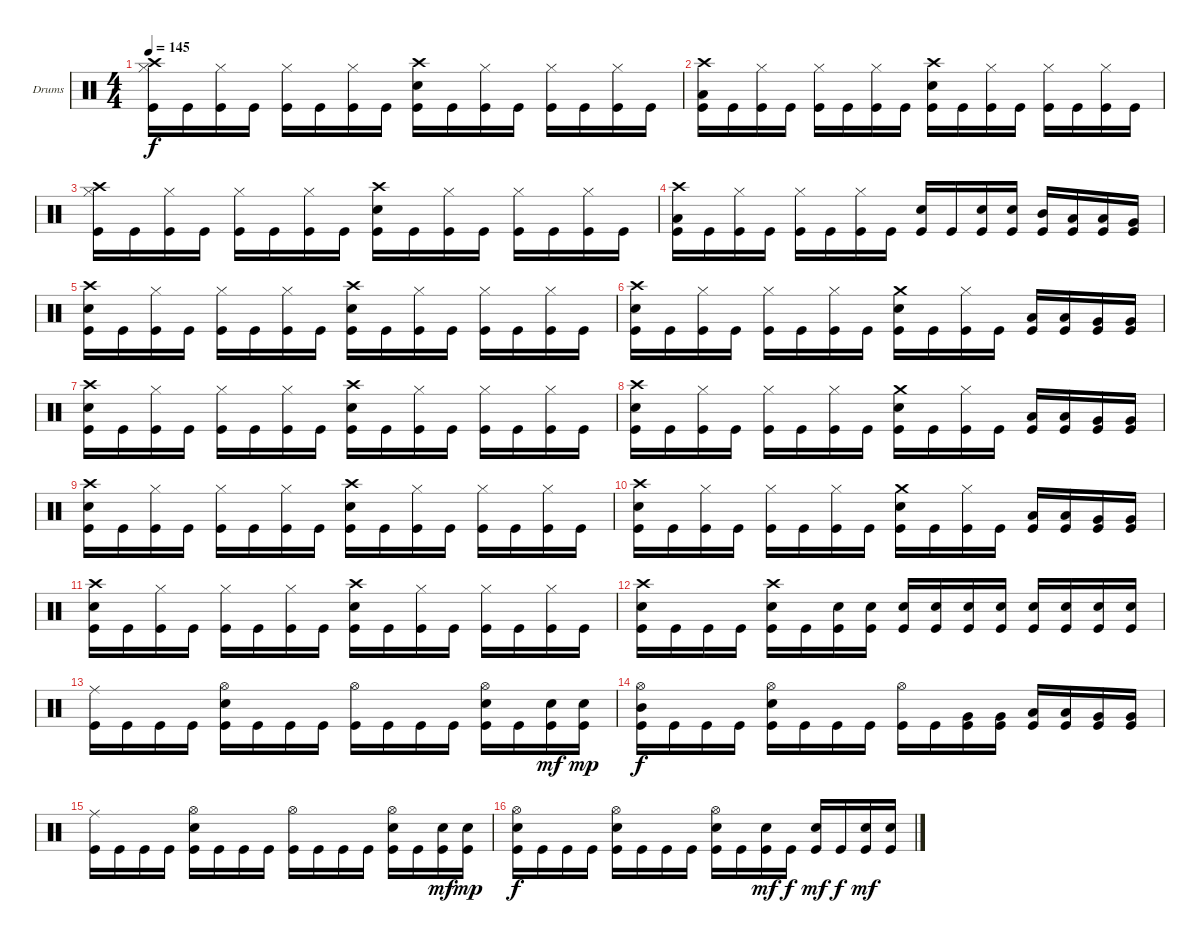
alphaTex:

\bracketExtendMode groupsimilarinstruments
\firstSystemTrackNameOrientation horizontal
\otherSystemsTrackNameOrientation horizontal
\track ("Drumkit" "Drums") {instrument percussion}
\staff {score}
\articulation defaults
\ts (4 4)
\tempo 145
\clef neutral
\ks c
("Crash high (hit)" "Hi-Hat (closed)" "Kick (hit)").16{dy f} "Kick (hit)".16 ("Hi-Hat (closed)" "Kick (hit)").16 "Kick (hit)".16 ("Hi-Hat (closed)" "Kick (hit)").16 "Kick (hit)".16 ("Hi-Hat (closed)" "Kick (hit)").16 "Kick (hit)".16 ("Crash high (hit)" "Snare (hit) 2" "Kick (hit)").16 "Kick (hit)".16 ("Hi-Hat (closed)" "Kick (hit)").16 "Kick (hit)".16 ("Hi-Hat (closed)" "Kick (hit)").16 "Kick (hit)".16 ("Hi-Hat (closed)" "Kick (hit)").16 "Kick (hit)".16 |
("Crash high (hit)" "Low Tom (hit)" "Kick (hit)").16 "Kick (hit)".16 ("Hi-Hat (closed)" "Kick (hit)").16 "Kick (hit)".16 ("Hi-Hat (closed)" "Kick (hit)").16 "Kick (hit)".16 ("Hi-Hat (closed)" "Kick (hit)").16 "Kick (hit)".16 ("Crash high (hit)" "Snare (hit) 2" "Kick (hit)").16 "Kick (hit)".16 ("Hi-Hat (closed)" "Kick (hit)").16 "Kick (hit)".16 ("Hi-Hat (closed)" "Kick (hit)").16 "Kick (hit)".16 ("Hi-Hat (closed)" "Kick (hit)").16 "Kick (hit)".16 |
("Crash high (hit)" "Hi-Hat (closed)" "Kick (hit)").16 "Kick (hit)".16 ("Hi-Hat (closed)" "Kick (hit)").16 "Kick (hit)".16 ("Hi-Hat (closed)" "Kick (hit)").16 "Kick (hit)".16 ("Hi-Hat (closed)" "Kick (hit)").16 "Kick (hit)".16 ("Crash high (hit)" "Snare (hit) 2" "Kick (hit)").16 "Kick (hit)".16 ("Hi-Hat (closed)" "Kick (hit)").16 "Kick (hit)".16 ("Hi-Hat (closed)" "Kick (hit)").16 "Kick (hit)".16 ("Hi-Hat (closed)" "Kick (hit)").16 "Kick (hit)".16 |
("Crash high (hit)" "Low Tom (hit)" "Kick (hit)").16 "Kick (hit)".16 ("Hi-Hat (closed)" "Kick (hit)").16 "Kick (hit)".16 ("Hi-Hat (closed)" "Kick (hit)").16 "Kick (hit)".16 ("Hi-Hat (closed)" "Kick (hit)").16 "Kick (hit)".16 ("Snare (hit) 2" "Kick (hit)").16 "Kick (hit)".16 ("Snare (hit) 2" "Kick (hit)").16 ("Snare (hit) 2" "Kick (hit)").16 ("Mid Tom (hit)" "Kick (hit)").16 ("Low Tom (hit)" "Kick (hit)").16 ("Low Tom (hit)" "Kick (hit)").16 ("Very Low Tom (hit)" "Kick (hit)").16 |
("Crash high (hit)" "Snare (hit) 2" "Kick (hit)").16 "Kick (hit)".16 ("Hi-Hat (closed)" "Kick (hit)").16 "Kick (hit)".16 ("Hi-Hat (closed)" "Kick (hit)").16 "Kick (hit)".16 ("Hi-Hat (closed)" "Kick (hit)").16 "Kick (hit)".16 ("Crash high (hit)" "Snare (hit) 2" "Kick (hit)").16 "Kick (hit)".16 ("Hi-Hat (closed)" "Kick (hit)").16 "Kick (hit)".16 ("Hi-Hat (closed)" "Kick (hit)").16 "Kick (hit)".16 ("Hi-Hat (closed)" "Kick (hit)").16 "Kick (hit)".16 |
("Crash high (hit)" "Snare (hit) 2" "Kick (hit)").16 "Kick (hit)".16 ("Hi-Hat (closed)" "Kick (hit)").16 "Kick (hit)".16 ("Hi-Hat (closed)" "Kick (hit)").16 "Kick (hit)".16 ("Hi-Hat (closed)" "Kick (hit)").16 "Kick (hit)".16 ("Crash medium (hit)" "Snare (hit) 2" "Kick (hit)").16 "Kick (hit)".16 ("Hi-Hat (closed)" "Kick (hit)").16 "Kick (hit)".16 ("Low Tom (hit)" "Kick (hit)").16 ("Low Tom (hit)" "Kick (hit)").16 ("Very Low Tom (hit)" "Kick (hit)").16 ("Very Low Tom (hit)" "Kick (hit)").16 |
("Crash high (hit)" "Snare (hit) 2" "Kick (hit)").16 "Kick (hit)".16 ("Hi-Hat (closed)" "Kick (hit)").16 "Kick (hit)".16 ("Hi-Hat (closed)" "Kick (hit)").16 "Kick (hit)".16 ("Hi-Hat (closed)" "Kick (hit)").16 "Kick (hit)".16 ("Crash high (hit)" "Snare (hit) 2" "Kick (hit)").16 "Kick (hit)".16 ("Hi-Hat (closed)" "Kick (hit)").16 "Kick (hit)".16 ("Hi-Hat (closed)" "Kick (hit)").16 "Kick (hit)".16 ("Hi-Hat (closed)" "Kick (hit)").16 "Kick (hit)".16 |
("Crash high (hit)" "Snare (hit) 2" "Kick (hit)").16 "Kick (hit)".16 ("Hi-Hat (closed)" "Kick (hit)").16 "Kick (hit)".16 ("Hi-Hat (closed)" "Kick (hit)").16 "Kick (hit)".16 ("Hi-Hat (closed)" "Kick (hit)").16 "Kick (hit)".16 ("Crash medium (hit)" "Snare (hit) 2" "Kick (hit)").16 "Kick (hit)".16 ("Hi-Hat (closed)" "Kick (hit)").16 "Kick (hit)".16 ("Low Tom (hit)" "Kick (hit)").16 ("Low Tom (hit)" "Kick (hit)").16 ("Very Low Tom (hit)" "Kick (hit)").16 ("Very Low Tom (hit)" "Kick (hit)").16 |
("Crash high (hit)" "Snare (hit) 2" "Kick (hit)").16 "Kick (hit)".16 ("Hi-Hat (closed)" "Kick (hit)").16 "Kick (hit)".16 ("Hi-Hat (closed)" "Kick (hit)").16 "Kick (hit)".16 ("Hi-Hat (closed)" "Kick (hit)").16 "Kick (hit)".16 ("Crash high (hit)" "Snare (hit) 2" "Kick (hit)").16 "Kick (hit)".16 ("Hi-Hat (closed)" "Kick (hit)").16 "Kick (hit)".16 ("Hi-Hat (closed)" "Kick (hit)").16 "Kick (hit)".16 ("Hi-Hat (closed)" "Kick (hit)").16 "Kick (hit)".16 |
("Crash high (hit)" "Snare (hit) 2" "Kick (hit)").16 "Kick (hit)".16 ("Hi-Hat (closed)" "Kick (hit)").16 "Kick (hit)".16 ("Hi-Hat (closed)" "Kick (hit)").16 "Kick (hit)".16 ("Hi-Hat (closed)" "Kick (hit)").16 "Kick (hit)".16 ("Crash medium (hit)" "Snare (hit) 2" "Kick (hit)").16 "Kick (hit)".16 ("Hi-Hat (closed)" "Kick (hit)").16 "Kick (hit)".16 ("Low Tom (hit)" "Kick (hit)").16 ("Low Tom (hit)" "Kick (hit)").16 ("Very Low Tom (hit)" "Kick (hit)").16 ("Very Low Tom (hit)" "Kick (hit)").16 |
("Crash high (hit)" "Snare (hit) 2" "Kick (hit)").16 "Kick (hit)".16 ("Hi-Hat (closed)" "Kick (hit)").16 "Kick (hit)".16 ("Hi-Hat (closed)" "Kick (hit)").16 "Kick (hit)".16 ("Hi-Hat (closed)" "Kick (hit)").16 "Kick (hit)".16 ("Crash high (hit)" "Snare (hit) 2" "Kick (hit)").16 "Kick (hit)".16 ("Hi-Hat (closed)" "Kick (hit)").16 "Kick (hit)".16 ("Hi-Hat (closed)" "Kick (hit)").16 "Kick (hit)".16 ("Hi-Hat (closed)" "Kick (hit)").16 "Kick (hit)".16 |
("Crash high (hit)" "Snare (hit) 2" "Kick (hit)").16 "Kick (hit)".16 "Kick (hit)".16 "Kick (hit)".16 ("Crash high (hit)" "Snare (hit) 2" "Kick (hit)").16 "Kick (hit)".16 ("Snare (hit) 2" "Kick (hit)").16 ("Snare (hit) 2" "Kick (hit)").16 ("Snare (hit) 2" "Kick (hit)").16 ("Snare (hit) 2" "Kick (hit)").16 ("Snare (hit) 2" "Kick (hit)").16 ("Snare (hit) 2" "Kick (hit)").16 ("Snare (hit) 2" "Kick (hit)").16 ("Snare (hit) 2" "Kick (hit)").16 ("Snare (hit) 2" "Kick (hit)").16 ("Snare (hit) 2" "Kick (hit)").16 |
("Ride (middle)" "Kick (hit)").16 "Kick (hit)".16 "Kick (hit)".16 "Kick (hit)".16 ("Hi-Hat (open)" "Snare (hit) 2" "Kick (hit)").16 "Kick (hit)".16 "Kick (hit)".16 "Kick (hit)".16 ("Hi-Hat (open)" "Kick (hit)").16 "Kick (hit)".16 "Kick (hit)".16 "Kick (hit)".16 ("Hi-Hat (open)" "Snare (hit) 2" "Kick (hit)").16 "Kick (hit)".16 ("Snare (hit) 2" "Kick (hit)").16{dy mf} ("Snare (hit) 2" "Kick (hit)").16{dy mp} |
("Hi-Hat (open)" "Mid Tom (hit)" "Kick (hit)").16{dy f} "Kick (hit)".16 "Kick (hit)".16 "Kick (hit)".16 ("Hi-Hat (open)" "Snare (hit) 2" "Kick (hit)").16 "Kick (hit)".16 "Kick (hit)".16 "Kick (hit)".16 ("Hi-Hat (open)" "Kick (hit)").16 "Kick (hit)".16 ("Very Low Tom (hit)" "Kick (hit)").16 ("Very Low Tom (hit)" "Kick (hit)").16 ("Low Tom (hit)" "Kick (hit)").16 ("Low Tom (hit)" "Kick (hit)").16 ("Very Low Tom (hit)" "Kick (hit)").16 ("Very Low Tom (hit)" "Kick (hit)").16 |
("Ride (middle)" "Kick (hit)").16 "Kick (hit)".16 "Kick (hit)".16 "Kick (hit)".16 ("Hi-Hat (open)" "Snare (hit) 2" "Kick (hit)").16 "Kick (hit)".16 "Kick (hit)".16 "Kick (hit)".16 ("Hi-Hat (open)" "Kick (hit)").16 "Kick (hit)".16 "Kick (hit)".16 "Kick (hit)".16 ("Hi-Hat (open)" "Snare (hit) 2" "Kick (hit)").16 "Kick (hit)".16 ("Snare (hit) 2" "Kick (hit)").16{dy mf} ("Snare (hit) 2" "Kick (hit)").16{dy mp} |
("Hi-Hat (open)" "Snare (hit) 2" "Kick (hit)").16{dy f} "Kick (hit)".16 "Kick (hit)".16 "Kick (hit)".16 ("Hi-Hat (open)" "Snare (hit) 2" "Kick (hit)").16 "Kick (hit)".16 "Kick (hit)".16 "Kick (hit)".16 ("Hi-Hat (open)" "Snare (hit) 2" "Kick (hit)").16 "Kick (hit)".16 ("Snare (hit) 2" "Kick (hit)").16{dy mf} "Kick (hit)".16{dy f} ("Snare (hit) 2" "Kick (hit)").16{dy mf} "Kick (hit)".16{dy f} ("Snare (hit) 2" "Kick (hit)").16{dy mf} ("Snare (hit) 2" "Kick (hit)").16
